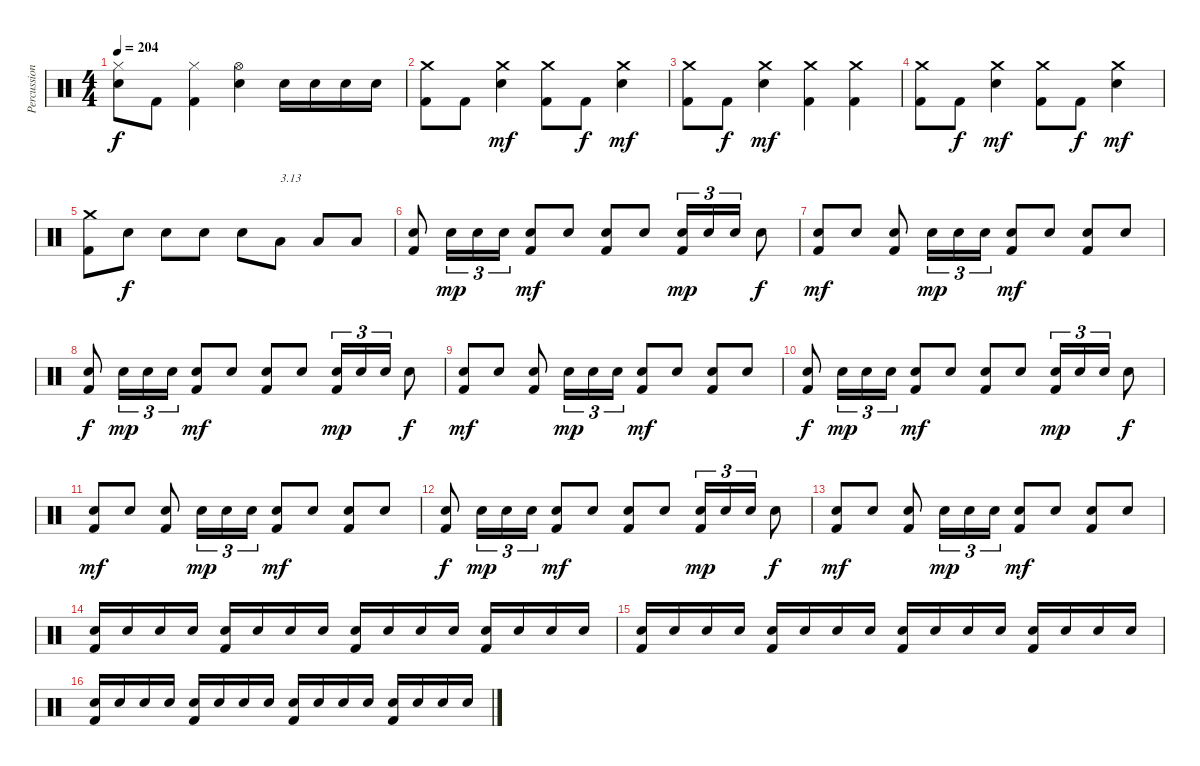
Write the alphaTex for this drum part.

\track ("Percussions" "Percussion") {instrument percussion}
\staff {score}
\articulation defaults
\ts (4 4)
\tempo 204
\clef neutral
\ks c
("Snare (hit)"{t} "Hi-Hat (closed)").8{dy f} "Kick (hit) 2".8 ("Kick (hit) 2" "Hi-Hat (closed)").4 ("Electric Snare (hit)" "Hi-Hat (open)").4 "Electric Snare (hit)".16 "Electric Snare (hit)".16 "Electric Snare (hit)".16 "Electric Snare (hit)".16 |
("Kick (hit) 2" "Crash medium (hit)").8 "Kick (hit) 2".8 ("Electric Snare (hit)" "Crash medium (hit)").4{dy mf} ("Kick (hit) 2" "Crash medium (hit)").8 "Kick (hit) 2".8{dy f} ("Electric Snare (hit)" "Crash medium (hit)").4{dy mf} |
("Kick (hit) 2" "Crash medium (hit)").8 "Kick (hit) 2".8{dy f} ("Electric Snare (hit)" "Crash medium (hit)").4{dy mf} ("Kick (hit) 2" "Crash medium (hit)").4 ("Kick (hit) 2" "Crash medium (hit)").4 |
("Kick (hit) 2" "Crash medium (hit)").8 "Kick (hit) 2".8{dy f} ("Electric Snare (hit)" "Crash medium (hit)").4{dy mf} ("Kick (hit) 2" "Crash medium (hit)").8 "Kick (hit) 2".8{dy f} ("Electric Snare (hit)" "Crash medium (hit)").4{dy mf} |
("Kick (hit) 2" "Crash medium (hit)").8 "Electric Snare (hit)".8{dy f} "Electric Snare (hit)".8 "Electric Snare (hit)".8 "Electric Snare (hit)".8 "Low Floor Tom (hit)".8{txt "3.13"} "Low Floor Tom (hit)".8 "Low Floor Tom (hit)".8 |
("Kick (hit) 2" "Electric Snare (hit)").8 "Electric Snare (hit)".16{tu (3 2) dy mp} "Electric Snare (hit)".16{tu (3 2)} "Electric Snare (hit)".16{tu (3 2)} ("Kick (hit) 2" "Electric Snare (hit)").8{dy mf} "Electric Snare (hit)".8 ("Kick (hit) 2" "Electric Snare (hit)").8 "Electric Snare (hit)".8 ("Kick (hit) 2" "Electric Snare (hit)").16{tu (3 2) dy mp} "Electric Snare (hit)".16{tu (3 2)} "Electric Snare (hit)".16{tu (3 2)} "Electric Snare (hit)".8{dy f} |
("Kick (hit) 2" "Electric Snare (hit)").8{dy mf} "Electric Snare (hit)".8 ("Kick (hit) 2" "Electric Snare (hit)").8 "Electric Snare (hit)".16{tu (3 2) dy mp} "Electric Snare (hit)".16{tu (3 2)} "Electric Snare (hit)".16{tu (3 2)} ("Kick (hit) 2" "Electric Snare (hit)").8{dy mf} "Electric Snare (hit)".8 ("Kick (hit) 2" "Electric Snare (hit)").8 "Electric Snare (hit)".8 |
("Kick (hit) 2" "Electric Snare (hit)").8{dy f} "Electric Snare (hit)".16{tu (3 2) dy mp} "Electric Snare (hit)".16{tu (3 2)} "Electric Snare (hit)".16{tu (3 2)} ("Kick (hit) 2" "Electric Snare (hit)").8{dy mf} "Electric Snare (hit)".8 ("Kick (hit) 2" "Electric Snare (hit)").8 "Electric Snare (hit)".8 ("Kick (hit) 2" "Electric Snare (hit)").16{tu (3 2) dy mp} "Electric Snare (hit)".16{tu (3 2)} "Electric Snare (hit)".16{tu (3 2)} "Electric Snare (hit)".8{dy f} |
("Kick (hit) 2" "Electric Snare (hit)").8{dy mf} "Electric Snare (hit)".8 ("Kick (hit) 2" "Electric Snare (hit)").8 "Electric Snare (hit)".16{tu (3 2) dy mp} "Electric Snare (hit)".16{tu (3 2)} "Electric Snare (hit)".16{tu (3 2)} ("Kick (hit) 2" "Electric Snare (hit)").8{dy mf} "Electric Snare (hit)".8 ("Kick (hit) 2" "Electric Snare (hit)").8 "Electric Snare (hit)".8 |
("Kick (hit) 2" "Electric Snare (hit)").8{dy f} "Electric Snare (hit)".16{tu (3 2) dy mp} "Electric Snare (hit)".16{tu (3 2)} "Electric Snare (hit)".16{tu (3 2)} ("Kick (hit) 2" "Electric Snare (hit)").8{dy mf} "Electric Snare (hit)".8 ("Kick (hit) 2" "Electric Snare (hit)").8 "Electric Snare (hit)".8 ("Kick (hit) 2" "Electric Snare (hit)").16{tu (3 2) dy mp} "Electric Snare (hit)".16{tu (3 2)} "Electric Snare (hit)".16{tu (3 2)} "Electric Snare (hit)".8{dy f} |
("Kick (hit) 2" "Electric Snare (hit)").8{dy mf} "Electric Snare (hit)".8 ("Kick (hit) 2" "Electric Snare (hit)").8 "Electric Snare (hit)".16{tu (3 2) dy mp} "Electric Snare (hit)".16{tu (3 2)} "Electric Snare (hit)".16{tu (3 2)} ("Kick (hit) 2" "Electric Snare (hit)").8{dy mf} "Electric Snare (hit)".8 ("Kick (hit) 2" "Electric Snare (hit)").8 "Electric Snare (hit)".8 |
("Kick (hit) 2" "Electric Snare (hit)").8{dy f} "Electric Snare (hit)".16{tu (3 2) dy mp} "Electric Snare (hit)".16{tu (3 2)} "Electric Snare (hit)".16{tu (3 2)} ("Kick (hit) 2" "Electric Snare (hit)").8{dy mf} "Electric Snare (hit)".8 ("Kick (hit) 2" "Electric Snare (hit)").8 "Electric Snare (hit)".8 ("Kick (hit) 2" "Electric Snare (hit)").16{tu (3 2) dy mp} "Electric Snare (hit)".16{tu (3 2)} "Electric Snare (hit)".16{tu (3 2)} "Electric Snare (hit)".8{dy f} |
("Kick (hit) 2" "Electric Snare (hit)").8{dy mf} "Electric Snare (hit)".8 ("Kick (hit) 2" "Electric Snare (hit)").8 "Electric Snare (hit)".16{tu (3 2) dy mp} "Electric Snare (hit)".16{tu (3 2)} "Electric Snare (hit)".16{tu (3 2)} ("Kick (hit) 2" "Electric Snare (hit)").8{dy mf} "Electric Snare (hit)".8 ("Kick (hit) 2" "Electric Snare (hit)").8 "Electric Snare (hit)".8 |
("Kick (hit) 2" "Electric Snare (hit)").16 "Electric Snare (hit)".16 "Electric Snare (hit)".16 "Electric Snare (hit)".16 ("Kick (hit) 2" "Electric Snare (hit)").16 "Electric Snare (hit)".16 "Electric Snare (hit)".16 "Electric Snare (hit)".16 ("Kick (hit) 2" "Electric Snare (hit)").16 "Electric Snare (hit)".16 "Electric Snare (hit)".16 "Electric Snare (hit)".16 ("Kick (hit) 2" "Electric Snare (hit)").16 "Electric Snare (hit)".16 "Electric Snare (hit)".16 "Electric Snare (hit)".16 |
("Kick (hit) 2" "Electric Snare (hit)").16 "Electric Snare (hit)".16 "Electric Snare (hit)".16 "Electric Snare (hit)".16 ("Kick (hit) 2" "Electric Snare (hit)").16 "Electric Snare (hit)".16 "Electric Snare (hit)".16 "Electric Snare (hit)".16 ("Kick (hit) 2" "Electric Snare (hit)").16 "Electric Snare (hit)".16 "Electric Snare (hit)".16 "Electric Snare (hit)".16 ("Kick (hit) 2" "Electric Snare (hit)").16 "Electric Snare (hit)".16 "Electric Snare (hit)".16 "Electric Snare (hit)".16 |
("Kick (hit) 2" "Electric Snare (hit)").16 "Electric Snare (hit)".16 "Electric Snare (hit)".16 "Electric Snare (hit)".16 ("Kick (hit) 2" "Electric Snare (hit)").16 "Electric Snare (hit)".16 "Electric Snare (hit)".16 "Electric Snare (hit)".16 ("Kick (hit) 2" "Electric Snare (hit)").16 "Electric Snare (hit)".16 "Electric Snare (hit)".16 "Electric Snare (hit)".16 ("Kick (hit) 2" "Electric Snare (hit)").16 "Electric Snare (hit)".16 "Electric Snare (hit)".16 "Electric Snare (hit)".16
